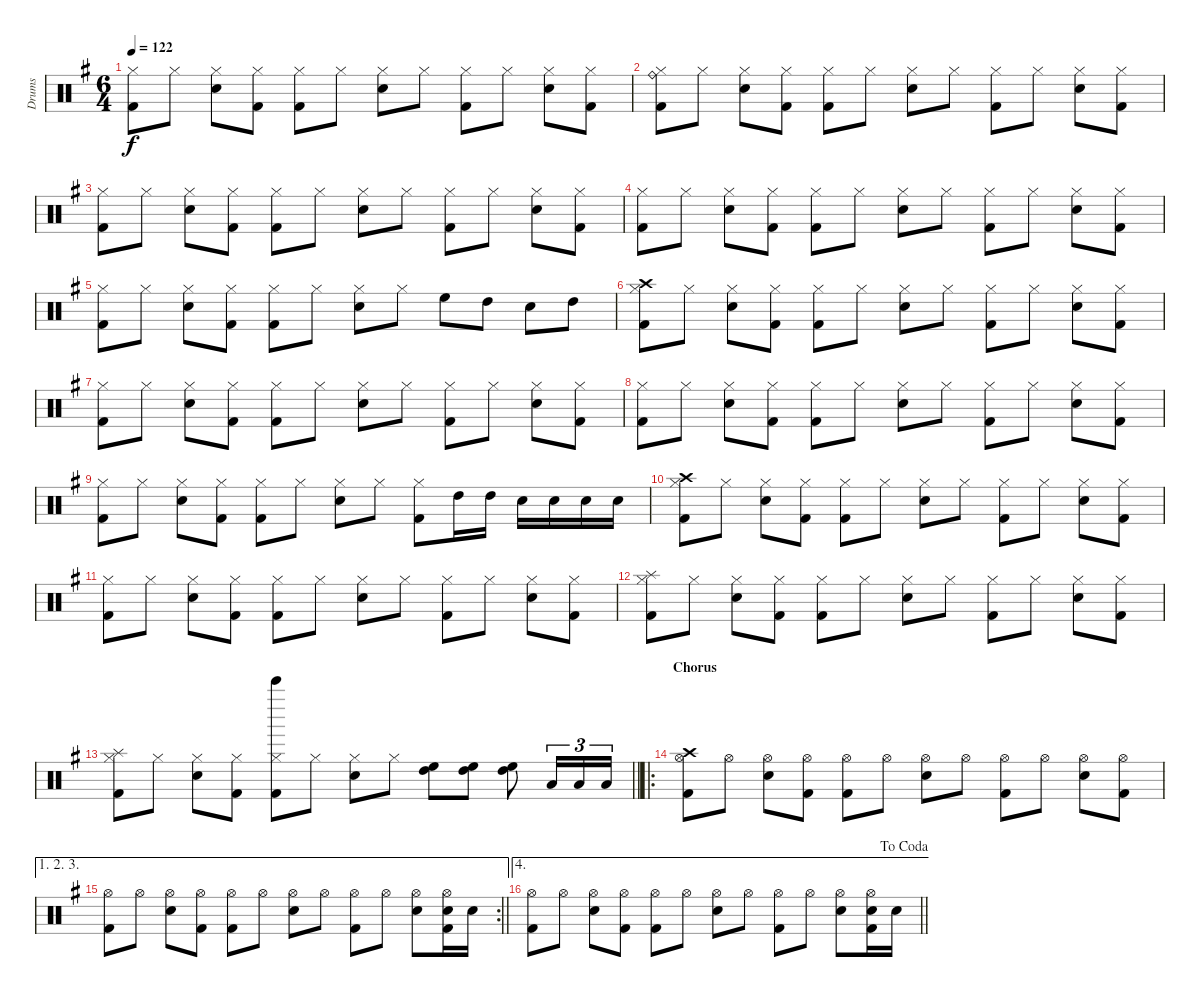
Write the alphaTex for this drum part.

\track ("Drums" "Drums") {instrument percussion}
\staff {score}
\articulation defaults
\ts (6 4)
\tempo 122
\clef neutral
\ks g
("Hi-Hat (closed)" "Kick (hit) 2").8{dy f} "Hi-Hat (closed)".8 ("Hi-Hat (closed)" "Snare (hit) 2").8 ("Hi-Hat (closed)" "Kick (hit) 2").8 ("Hi-Hat (closed)" "Kick (hit) 2").8 "Hi-Hat (closed)".8 ("Hi-Hat (closed)" "Snare (hit) 2").8 "Hi-Hat (closed)".8 ("Hi-Hat (closed)" "Kick (hit) 2").8 "Hi-Hat (closed)".8 ("Hi-Hat (closed)" "Snare (hit) 2").8 ("Hi-Hat (closed)" "Kick (hit) 2").8 |
("Hi-Hat (closed)" "Ride (bell)" "Kick (hit) 2").8 "Hi-Hat (closed)".8 ("Hi-Hat (closed)" "Snare (hit) 2").8 ("Hi-Hat (closed)" "Kick (hit) 2").8 ("Hi-Hat (closed)" "Kick (hit) 2").8 "Hi-Hat (closed)".8 ("Hi-Hat (closed)" "Snare (hit) 2").8 "Hi-Hat (closed)".8 ("Hi-Hat (closed)" "Kick (hit) 2").8 "Hi-Hat (closed)".8 ("Hi-Hat (closed)" "Snare (hit) 2").8 ("Hi-Hat (closed)" "Kick (hit) 2").8 |
("Hi-Hat (closed)" "Kick (hit) 2").8 "Hi-Hat (closed)".8 ("Hi-Hat (closed)" "Snare (hit) 2").8 ("Hi-Hat (closed)" "Kick (hit) 2").8 ("Hi-Hat (closed)" "Kick (hit) 2").8 "Hi-Hat (closed)".8 ("Hi-Hat (closed)" "Snare (hit) 2").8 "Hi-Hat (closed)".8 ("Hi-Hat (closed)" "Kick (hit) 2").8 "Hi-Hat (closed)".8 ("Hi-Hat (closed)" "Snare (hit) 2").8 ("Hi-Hat (closed)" "Kick (hit) 2").8 |
("Hi-Hat (closed)" "Kick (hit) 2").8 "Hi-Hat (closed)".8 ("Hi-Hat (closed)" "Snare (hit) 2").8 ("Hi-Hat (closed)" "Kick (hit) 2").8 ("Hi-Hat (closed)" "Kick (hit) 2").8 "Hi-Hat (closed)".8 ("Hi-Hat (closed)" "Snare (hit) 2").8 "Hi-Hat (closed)".8 ("Hi-Hat (closed)" "Kick (hit) 2").8 "Hi-Hat (closed)".8 ("Hi-Hat (closed)" "Snare (hit) 2").8 ("Hi-Hat (closed)" "Kick (hit) 2").8 |
("Hi-Hat (closed)" "Kick (hit) 2").8 "Hi-Hat (closed)".8 ("Hi-Hat (closed)" "Snare (hit) 2").8 ("Hi-Hat (closed)" "Kick (hit) 2").8 ("Hi-Hat (closed)" "Kick (hit) 2").8 "Hi-Hat (closed)".8 ("Hi-Hat (closed)" "Snare (hit) 2").8 "Hi-Hat (closed)".8 "High Floor Tom (hit)".8 "High Tom (hit)".8 "Snare (hit) 2".8 "High Tom (hit)".8 |
("Hi-Hat (closed)" "Crash high (hit)" "Kick (hit) 2").8 "Hi-Hat (closed)".8 ("Hi-Hat (closed)" "Snare (hit) 2").8 ("Hi-Hat (closed)" "Kick (hit) 2").8 ("Hi-Hat (closed)" "Kick (hit) 2").8 "Hi-Hat (closed)".8 ("Hi-Hat (closed)" "Snare (hit) 2").8 "Hi-Hat (closed)".8 ("Hi-Hat (closed)" "Kick (hit) 2").8 "Hi-Hat (closed)".8 ("Hi-Hat (closed)" "Snare (hit) 2").8 ("Hi-Hat (closed)" "Kick (hit) 2").8 |
("Hi-Hat (closed)" "Kick (hit) 2").8 "Hi-Hat (closed)".8 ("Hi-Hat (closed)" "Snare (hit) 2").8 ("Hi-Hat (closed)" "Kick (hit) 2").8 ("Hi-Hat (closed)" "Kick (hit) 2").8 "Hi-Hat (closed)".8 ("Hi-Hat (closed)" "Snare (hit) 2").8 "Hi-Hat (closed)".8 ("Hi-Hat (closed)" "Kick (hit) 2").8 "Hi-Hat (closed)".8 ("Hi-Hat (closed)" "Snare (hit) 2").8 ("Hi-Hat (closed)" "Kick (hit) 2").8 |
("Hi-Hat (closed)" "Kick (hit) 2").8 "Hi-Hat (closed)".8 ("Hi-Hat (closed)" "Snare (hit) 2").8 ("Hi-Hat (closed)" "Kick (hit) 2").8 ("Hi-Hat (closed)" "Kick (hit) 2").8 "Hi-Hat (closed)".8 ("Hi-Hat (closed)" "Snare (hit) 2").8 "Hi-Hat (closed)".8 ("Hi-Hat (closed)" "Kick (hit) 2").8 "Hi-Hat (closed)".8 ("Hi-Hat (closed)" "Snare (hit) 2").8 ("Hi-Hat (closed)" "Kick (hit) 2").8 |
("Hi-Hat (closed)" "Kick (hit) 2").8 "Hi-Hat (closed)".8 ("Hi-Hat (closed)" "Snare (hit) 2").8 ("Hi-Hat (closed)" "Kick (hit) 2").8 ("Hi-Hat (closed)" "Kick (hit) 2").8 "Hi-Hat (closed)".8 ("Hi-Hat (closed)" "Snare (hit) 2").8 "Hi-Hat (closed)".8 ("Hi-Hat (closed)" "Kick (hit) 2").8 "High Tom (hit)".16 "High Tom (hit)".16 "Snare (hit) 2".16 "Snare (hit) 2".16 "Snare (hit) 2".16 "Snare (hit) 2".16 |
("Hi-Hat (closed)" "Crash high (hit)" "Kick (hit) 2").8 "Hi-Hat (closed)".8 ("Hi-Hat (closed)" "Snare (hit) 2").8 ("Hi-Hat (closed)" "Kick (hit) 2").8 ("Hi-Hat (closed)" "Kick (hit) 2").8 "Hi-Hat (closed)".8 ("Hi-Hat (closed)" "Snare (hit) 2").8 "Hi-Hat (closed)".8 ("Hi-Hat (closed)" "Kick (hit) 2").8 "Hi-Hat (closed)".8 ("Hi-Hat (closed)" "Snare (hit) 2").8 ("Hi-Hat (closed)" "Kick (hit) 2").8 |
("Hi-Hat (closed)" "Kick (hit) 2").8 "Hi-Hat (closed)".8 ("Hi-Hat (closed)" "Snare (hit) 2").8 ("Hi-Hat (closed)" "Kick (hit) 2").8 ("Hi-Hat (closed)" "Kick (hit) 2").8 "Hi-Hat (closed)".8 ("Hi-Hat (closed)" "Snare (hit) 2").8 "Hi-Hat (closed)".8 ("Hi-Hat (closed)" "Kick (hit) 2").8 "Hi-Hat (closed)".8 ("Hi-Hat (closed)" "Snare (hit) 2").8 ("Hi-Hat (closed)" "Kick (hit) 2").8 |
("Hi-Hat (closed)" "Splash (hit)" "Kick (hit) 2").8 "Hi-Hat (closed)".8 ("Hi-Hat (closed)" "Snare (hit) 2").8 ("Hi-Hat (closed)" "Kick (hit) 2").8 ("Hi-Hat (closed)" "Kick (hit) 2").8 "Hi-Hat (closed)".8 ("Hi-Hat (closed)" "Snare (hit) 2").8 "Hi-Hat (closed)".8 ("Hi-Hat (closed)" "Kick (hit) 2").8 "Hi-Hat (closed)".8 ("Hi-Hat (closed)" "Snare (hit) 2").8 ("Hi-Hat (closed)" "Kick (hit) 2").8 |
\barLineRight lightlight
("Hi-Hat (closed)" "Splash (hit)" "Kick (hit) 2").8 "Hi-Hat (closed)".8 ("Hi-Hat (closed)" "Snare (hit) 2").8 ("Hi-Hat (closed)" "Kick (hit) 2").8 ("Hi-Hat (closed)" "Bell Tree (hit)" "Kick (hit) 2").8 "Hi-Hat (closed)".8 ("Hi-Hat (closed)" "Snare (hit) 2").8 "Hi-Hat (closed)".8 ("High Floor Tom (hit)" "High Tom (hit)").8 ("High Floor Tom (hit)" "High Tom (hit)").8 ("High Floor Tom (hit)" "High Tom (hit)").8 "Low Tom (hit)".16{tu (3 2)} "Low Tom (hit)".16{tu (3 2)} "Low Tom (hit)".16{tu (3 2)} |
\ro
\section ("" "Chorus")
("Hi-Hat (open)" "Crash high (hit)" "Kick (hit) 2").8 "Hi-Hat (open)".8 ("Hi-Hat (open)" "Snare (hit) 2").8 ("Hi-Hat (open)" "Kick (hit) 2").8 ("Hi-Hat (open)" "Kick (hit) 2").8 "Hi-Hat (open)".8 ("Hi-Hat (open)" "Snare (hit) 2").8 "Hi-Hat (open)".8 ("Hi-Hat (open)" "Kick (hit) 2").8 "Hi-Hat (open)".8 ("Hi-Hat (open)" "Snare (hit) 2").8 ("Hi-Hat (open)" "Kick (hit) 2").8 |
\ae (1 2 3)
\rc 2
\barLineRight lightlight
("Hi-Hat (open)" "Kick (hit) 2").8 "Hi-Hat (open)".8 ("Hi-Hat (open)" "Snare (hit) 2").8 ("Hi-Hat (open)" "Kick (hit) 2").8 ("Hi-Hat (open)" "Kick (hit) 2").8 "Hi-Hat (open)".8 ("Hi-Hat (open)" "Snare (hit) 2").8 "Hi-Hat (open)".8 ("Hi-Hat (open)" "Kick (hit) 2").8 "Hi-Hat (open)".8 ("Hi-Hat (open)" "Snare (hit) 2").8 ("Hi-Hat (open)" "Snare (hit) 2" "Kick (hit) 2").16 "Snare (hit) 2".16 |
\ae 4
\jump dacoda
\barLineRight lightlight
("Hi-Hat (open)" "Kick (hit) 2").8 "Hi-Hat (open)".8 ("Hi-Hat (open)" "Snare (hit) 2").8 ("Hi-Hat (open)" "Kick (hit) 2").8 ("Hi-Hat (open)" "Kick (hit) 2").8 "Hi-Hat (open)".8 ("Hi-Hat (open)" "Snare (hit) 2").8 "Hi-Hat (open)".8 ("Hi-Hat (open)" "Kick (hit) 2").8 "Hi-Hat (open)".8 ("Hi-Hat (open)" "Snare (hit) 2").8 ("Hi-Hat (open)" "Snare (hit) 2" "Kick (hit) 2").16 "Snare (hit) 2".16
